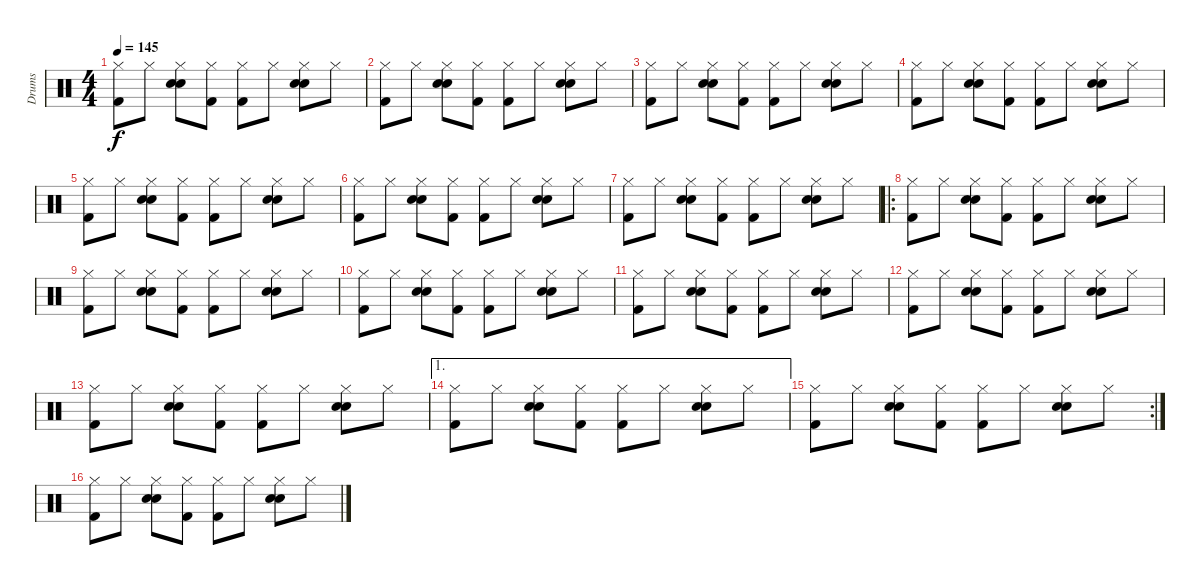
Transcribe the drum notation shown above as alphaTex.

\track ("Drums" "Drums") {instrument percussion}
\staff {score}
\articulation defaults
\ts (4 4)
\tempo 145
\clef neutral
\ks c
("Hi-Hat (closed)" "Kick (hit) 2").8{dy f} "Hi-Hat (closed)".8 ("Hi-Hat (closed)" "Electric Snare (hit)" "Snare (hit) 2").8 ("Hi-Hat (closed)" "Kick (hit) 2").8 ("Hi-Hat (closed)" "Kick (hit) 2").8 "Hi-Hat (closed)".8 ("Hi-Hat (closed)" "Electric Snare (hit)" "Snare (hit) 2").8 "Hi-Hat (closed)".8 |
("Hi-Hat (closed)" "Kick (hit) 2").8 "Hi-Hat (closed)".8 ("Hi-Hat (closed)" "Electric Snare (hit)" "Snare (hit) 2").8 ("Hi-Hat (closed)" "Kick (hit) 2").8 ("Hi-Hat (closed)" "Kick (hit) 2").8 "Hi-Hat (closed)".8 ("Hi-Hat (closed)" "Electric Snare (hit)" "Snare (hit) 2").8 "Hi-Hat (closed)".8 |
("Hi-Hat (closed)" "Kick (hit) 2").8 "Hi-Hat (closed)".8 ("Hi-Hat (closed)" "Electric Snare (hit)" "Snare (hit) 2").8 ("Hi-Hat (closed)" "Kick (hit) 2").8 ("Hi-Hat (closed)" "Kick (hit) 2").8 "Hi-Hat (closed)".8 ("Hi-Hat (closed)" "Electric Snare (hit)" "Snare (hit) 2").8 "Hi-Hat (closed)".8 |
("Hi-Hat (closed)" "Kick (hit) 2").8 "Hi-Hat (closed)".8 ("Hi-Hat (closed)" "Electric Snare (hit)" "Snare (hit) 2").8 ("Hi-Hat (closed)" "Kick (hit) 2").8 ("Hi-Hat (closed)" "Kick (hit) 2").8 "Hi-Hat (closed)".8 ("Hi-Hat (closed)" "Electric Snare (hit)" "Snare (hit) 2").8 "Hi-Hat (closed)".8 |
("Hi-Hat (closed)" "Kick (hit) 2").8 "Hi-Hat (closed)".8 ("Hi-Hat (closed)" "Electric Snare (hit)" "Snare (hit) 2").8 ("Hi-Hat (closed)" "Kick (hit) 2").8 ("Hi-Hat (closed)" "Kick (hit) 2").8 "Hi-Hat (closed)".8 ("Hi-Hat (closed)" "Electric Snare (hit)" "Snare (hit) 2").8 "Hi-Hat (closed)".8 |
("Hi-Hat (closed)" "Kick (hit) 2").8 "Hi-Hat (closed)".8 ("Hi-Hat (closed)" "Electric Snare (hit)" "Snare (hit) 2").8 ("Hi-Hat (closed)" "Kick (hit) 2").8 ("Hi-Hat (closed)" "Kick (hit) 2").8 "Hi-Hat (closed)".8 ("Hi-Hat (closed)" "Electric Snare (hit)" "Snare (hit) 2").8 "Hi-Hat (closed)".8 |
("Hi-Hat (closed)" "Kick (hit) 2").8 "Hi-Hat (closed)".8 ("Hi-Hat (closed)" "Electric Snare (hit)" "Snare (hit) 2").8 ("Hi-Hat (closed)" "Kick (hit) 2").8 ("Hi-Hat (closed)" "Kick (hit) 2").8 "Hi-Hat (closed)".8 ("Hi-Hat (closed)" "Electric Snare (hit)" "Snare (hit) 2").8 "Hi-Hat (closed)".8 |
\ro
("Hi-Hat (closed)" "Kick (hit) 2").8 "Hi-Hat (closed)".8 ("Hi-Hat (closed)" "Electric Snare (hit)" "Snare (hit) 2").8 ("Hi-Hat (closed)" "Kick (hit) 2").8 ("Hi-Hat (closed)" "Kick (hit) 2").8 "Hi-Hat (closed)".8 ("Hi-Hat (closed)" "Electric Snare (hit)" "Snare (hit) 2").8 "Hi-Hat (closed)".8 |
("Hi-Hat (closed)" "Kick (hit) 2").8 "Hi-Hat (closed)".8 ("Hi-Hat (closed)" "Electric Snare (hit)" "Snare (hit) 2").8 ("Hi-Hat (closed)" "Kick (hit) 2").8 ("Hi-Hat (closed)" "Kick (hit) 2").8 "Hi-Hat (closed)".8 ("Hi-Hat (closed)" "Electric Snare (hit)" "Snare (hit) 2").8 "Hi-Hat (closed)".8 |
("Hi-Hat (closed)" "Kick (hit) 2").8 "Hi-Hat (closed)".8 ("Hi-Hat (closed)" "Electric Snare (hit)" "Snare (hit) 2").8 ("Hi-Hat (closed)" "Kick (hit) 2").8 ("Hi-Hat (closed)" "Kick (hit) 2").8 "Hi-Hat (closed)".8 ("Hi-Hat (closed)" "Electric Snare (hit)" "Snare (hit) 2").8 "Hi-Hat (closed)".8 |
("Hi-Hat (closed)" "Kick (hit) 2").8 "Hi-Hat (closed)".8 ("Hi-Hat (closed)" "Electric Snare (hit)" "Snare (hit) 2").8 ("Hi-Hat (closed)" "Kick (hit) 2").8 ("Hi-Hat (closed)" "Kick (hit) 2").8 "Hi-Hat (closed)".8 ("Hi-Hat (closed)" "Electric Snare (hit)" "Snare (hit) 2").8 "Hi-Hat (closed)".8 |
("Hi-Hat (closed)" "Kick (hit) 2").8 "Hi-Hat (closed)".8 ("Hi-Hat (closed)" "Electric Snare (hit)" "Snare (hit) 2").8 ("Hi-Hat (closed)" "Kick (hit) 2").8 ("Hi-Hat (closed)" "Kick (hit) 2").8 "Hi-Hat (closed)".8 ("Hi-Hat (closed)" "Electric Snare (hit)" "Snare (hit) 2").8 "Hi-Hat (closed)".8 |
("Hi-Hat (closed)" "Kick (hit) 2").8 "Hi-Hat (closed)".8 ("Hi-Hat (closed)" "Electric Snare (hit)" "Snare (hit) 2").8 ("Hi-Hat (closed)" "Kick (hit) 2").8 ("Hi-Hat (closed)" "Kick (hit) 2").8 "Hi-Hat (closed)".8 ("Hi-Hat (closed)" "Electric Snare (hit)" "Snare (hit) 2").8 "Hi-Hat (closed)".8 |
\ae 1
("Hi-Hat (closed)" "Kick (hit) 2").8 "Hi-Hat (closed)".8 ("Hi-Hat (closed)" "Electric Snare (hit)" "Snare (hit) 2").8 ("Hi-Hat (closed)" "Kick (hit) 2").8 ("Hi-Hat (closed)" "Kick (hit) 2").8 "Hi-Hat (closed)".8 ("Hi-Hat (closed)" "Electric Snare (hit)" "Snare (hit) 2").8 "Hi-Hat (closed)".8 |
\rc 2
("Hi-Hat (closed)" "Kick (hit) 2").8 "Hi-Hat (closed)".8 ("Hi-Hat (closed)" "Electric Snare (hit)" "Snare (hit) 2").8 ("Hi-Hat (closed)" "Kick (hit) 2").8 ("Hi-Hat (closed)" "Kick (hit) 2").8 "Hi-Hat (closed)".8 ("Hi-Hat (closed)" "Electric Snare (hit)" "Snare (hit) 2").8 "Hi-Hat (closed)".8 |
("Hi-Hat (closed)" "Kick (hit) 2").8 "Hi-Hat (closed)".8 ("Hi-Hat (closed)" "Electric Snare (hit)" "Snare (hit) 2").8 ("Hi-Hat (closed)" "Kick (hit) 2").8 ("Hi-Hat (closed)" "Kick (hit) 2").8 "Hi-Hat (closed)".8 ("Hi-Hat (closed)" "Electric Snare (hit)" "Snare (hit) 2").8 "Hi-Hat (closed)".8
